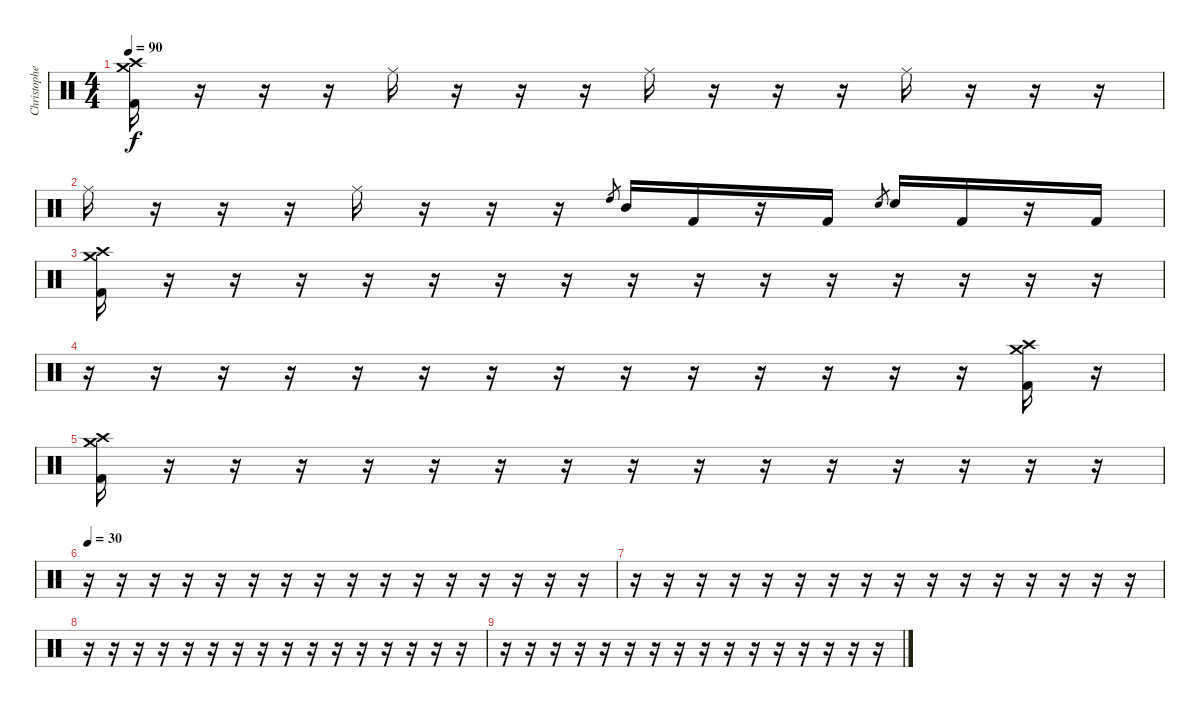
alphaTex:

\track ("Christopher Kinder" "Christophe") {instrument percussion}
\staff {score}
\articulation defaults
\ts (4 4)
\tempo 90
\clef neutral
\ks c
("Crash medium (hit)" "Crash high (hit)" "Kick (hit) 2").16{dy f} r.16 r.16 r.16 "Ride (middle)".16 r.16 r.16 r.16 "Ride (middle)".16 r.16 r.16 r.16 "Ride (middle)".16 r.16 r.16 r.16 |
"Ride (middle)".16 r.16 r.16 r.16 "Ride (middle)".16 r.16 r.16 r.16 "High Tom (hit)".8{gr} "Mid Tom (hit)".16 "Kick (hit) 2".16 r.16 "Kick (hit) 2".16 "Electric Snare (hit)".8{gr} "Electric Snare (hit)".16 "Kick (hit) 2".16 r.16 "Kick (hit) 2".16 |
("Crash medium (hit)" "Crash high (hit)" "Kick (hit) 2").16 r.16 r.16 r.16 r.16 r.16 r.16 r.16 r.16 r.16 r.16 r.16 r.16 r.16 r.16 r.16 |
r.16 r.16 r.16 r.16 r.16 r.16 r.16 r.16 r.16 r.16 r.16 r.16 r.16 r.16 ("Crash high (hit)" "Crash medium (hit)" "Kick (hit) 2").16 r.16 |
("Crash medium (hit)" "Crash high (hit)" "Kick (hit) 2").16 r.16 r.16 r.16 r.16 r.16 r.16 r.16 r.16 r.16 r.16 r.16 r.16 r.16 r.16 r.16 |
\tempo 30
r.16 r.16 r.16 r.16 r.16 r.16 r.16 r.16 r.16 r.16 r.16 r.16 r.16 r.16 r.16 r.16 |
r.16 r.16 r.16 r.16 r.16 r.16 r.16 r.16 r.16 r.16 r.16 r.16 r.16 r.16 r.16 r.16 |
r.16 r.16 r.16 r.16 r.16 r.16 r.16 r.16 r.16 r.16 r.16 r.16 r.16 r.16 r.16 r.16 |
r.16 r.16 r.16 r.16 r.16 r.16 r.16 r.16 r.16 r.16 r.16 r.16 r.16 r.16 r.16 r.16
